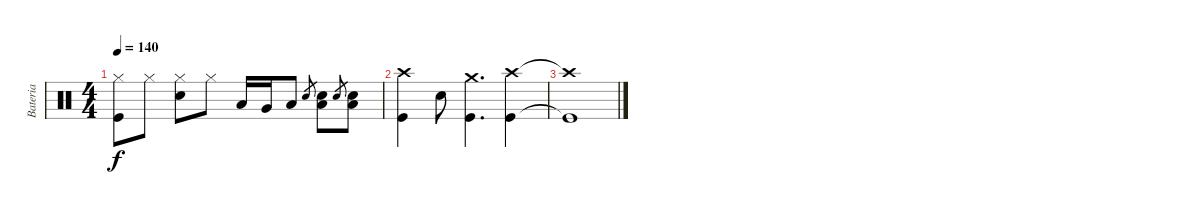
\track ("Bateria" "Bateria") {instrument percussion}
\staff {score}
\articulation defaults
\ts (4 4)
\tempo 140
\clef neutral
\ks c
("Hi-Hat (closed)" "Kick (hit)").8{dy f} "Hi-Hat (closed)".8 ("Hi-Hat (closed)" "Snare (hit) 2").8 "Hi-Hat (closed)".8 "Low Tom (hit)".16 "Very Low Tom (hit)".16 "Low Floor Tom (hit)".8 "Snare (hit) 2".8{gr} ("Snare (hit) 2" "Low Floor Tom (hit)").8 "Snare (hit) 2".8{gr} ("Snare (hit) 2" "Low Floor Tom (hit)").8 |
("Crash high (hit)" "Kick (hit)").4 "Snare (hit) 2".8 ("Crash medium (hit)" "Kick (hit)").4{d} ("Crash high (hit)" "Kick (hit)").4 |
("Crash high (hit)"{t} "Kick (hit)"{t}).1
